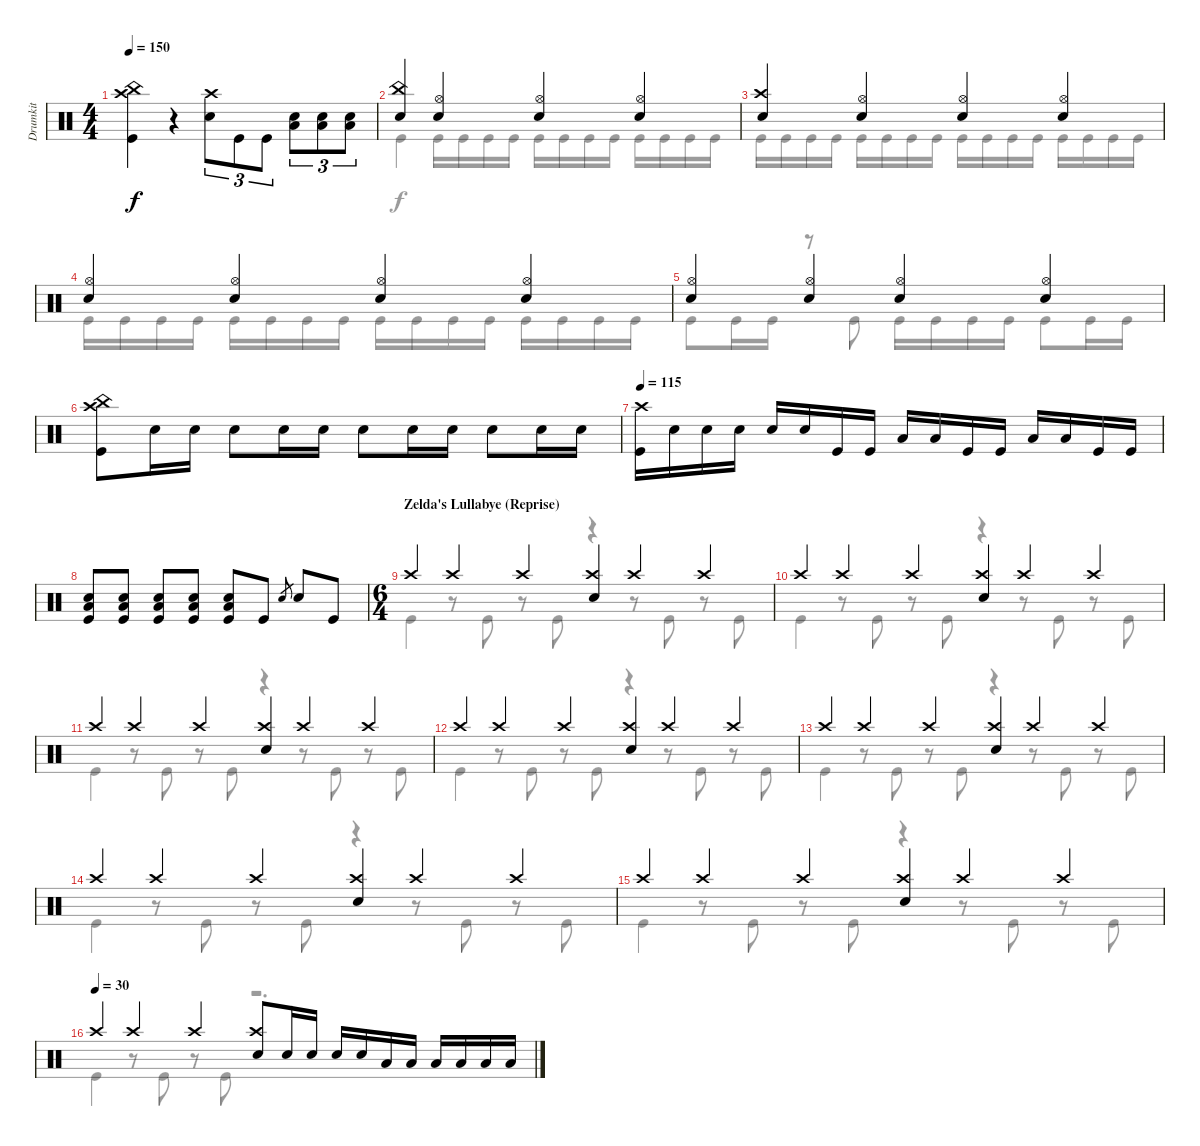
\track ("Drumkit" "Drumkit") {instrument percussion}
\staff {score}
\articulation defaults
\voice
\ts (4 4)
\tempo 150
\clef neutral
\ks c
("Kick (hit)" "Crash high (hit)" "China (hit)").4{dy f} r.4 ("Snare (hit) 2" "Crash high (hit)").8{tu (3 2)} "Kick (hit)".8{tu (3 2)} "Kick (hit)".8{tu (3 2)} ("Snare (hit) 2" "Low Floor Tom (hit)").8{tu (3 2)} ("Snare (hit) 2" "Low Floor Tom (hit)").8{tu (3 2)} ("Snare (hit) 2" "Low Floor Tom (hit)").8{tu (3 2)} |
("Snare (hit) 2" "China (hit)").4 ("Snare (hit) 2" "Hi-Hat (open)").4 ("Snare (hit) 2" "Hi-Hat (open)").4 ("Snare (hit) 2" "Hi-Hat (open)").4 |
("Snare (hit) 2" "Crash high (hit)").4 ("Snare (hit) 2" "Hi-Hat (open)").4 ("Snare (hit) 2" "Hi-Hat (open)").4 ("Snare (hit) 2" "Hi-Hat (open)").4 |
("Snare (hit) 2" "Hi-Hat (open)").4 ("Snare (hit) 2" "Hi-Hat (open)").4 ("Snare (hit) 2" "Hi-Hat (open)").4 ("Snare (hit) 2" "Hi-Hat (open)").4 |
("Snare (hit) 2" "Hi-Hat (open)").4 ("Snare (hit) 2" "Hi-Hat (open)").4 ("Snare (hit) 2" "Hi-Hat (open)").4 ("Snare (hit) 2" "Hi-Hat (open)").4 |
("Kick (hit)" "China (hit)" "Crash high (hit)").8 "Snare (hit) 2".16 "Snare (hit) 2".16 "Snare (hit) 2".8 "Snare (hit) 2".16 "Snare (hit) 2".16 "Snare (hit) 2".8 "Snare (hit) 2".16 "Snare (hit) 2".16 "Snare (hit) 2".8 "Snare (hit) 2".16 "Snare (hit) 2".16 |
\tempo 115
("Kick (hit)" "Crash high (hit)").16 "Snare (hit) 2".16 "Snare (hit) 2".16 "Snare (hit) 2".16 "Snare (hit) 2".16 "Snare (hit) 2".16 "Kick (hit)".16 "Kick (hit)".16 "Low Tom (hit)".16 "Low Tom (hit)".16 "Kick (hit)".16 "Kick (hit)".16 "Low Floor Tom (hit)".16 "Low Floor Tom (hit)".16 "Kick (hit)".16 "Kick (hit)".16 |
("Kick (hit)" "Snare (hit) 2" "Low Floor Tom (hit)").8 ("Kick (hit)" "Snare (hit) 2" "Low Floor Tom (hit)").8 ("Kick (hit)" "Snare (hit) 2" "Low Floor Tom (hit)").8 ("Kick (hit)" "Snare (hit) 2" "Low Floor Tom (hit)").8 ("Kick (hit)" "Snare (hit) 2" "Low Floor Tom (hit)").8 "Kick (hit)".8 "Snare (hit)".8{gr} "Snare (hit) 2".8 "Kick (hit)".8 |
\ts (6 4)
\section ("" "Zelda's Lullabye (Reprise)")
"Crash high (hit)".4 "Crash high (hit)".4 "Crash high (hit)".4 ("Crash high (hit)" "Snare (hit) 2").4 "Crash high (hit)".4 "Crash high (hit)".4 |
"Crash high (hit)".4 "Crash high (hit)".4 "Crash high (hit)".4 ("Crash high (hit)" "Snare (hit) 2").4 "Crash high (hit)".4 "Crash high (hit)".4 |
"Crash high (hit)".4 "Crash high (hit)".4 "Crash high (hit)".4 ("Crash high (hit)" "Snare (hit) 2").4 "Crash high (hit)".4 "Crash high (hit)".4 |
"Crash high (hit)".4 "Crash high (hit)".4 "Crash high (hit)".4 ("Crash high (hit)" "Snare (hit) 2").4 "Crash high (hit)".4 "Crash high (hit)".4 |
"Crash high (hit)".4 "Crash high (hit)".4 "Crash high (hit)".4 ("Crash high (hit)" "Snare (hit) 2").4 "Crash high (hit)".4 "Crash high (hit)".4 |
"Crash high (hit)".4 "Crash high (hit)".4 "Crash high (hit)".4 ("Crash high (hit)" "Snare (hit) 2").4 "Crash high (hit)".4 "Crash high (hit)".4 |
"Crash high (hit)".4 "Crash high (hit)".4 "Crash high (hit)".4 ("Crash high (hit)" "Snare (hit) 2").4 "Crash high (hit)".4 "Crash high (hit)".4 |
\tempo (30)
"Crash high (hit)".4 "Crash high (hit)".4 "Crash high (hit)".4 ("Crash high (hit)" "Snare (hit) 2").8 "Snare (hit) 2".16 "Snare (hit) 2".16 "Snare (hit) 2".16 "Snare (hit) 2".16 "Low Tom (hit)".16 "Low Tom (hit)".16 "Low Tom (hit)".16 "Low Tom (hit)".16 "Low Floor Tom (hit)".16 "Low Floor Tom (hit)".16
\voice
\clef neutral
\ottava regular
\simile none
\ks c
|
"Kick (hit)".4 "Kick (hit)".16 "Kick (hit)".16 "Kick (hit)".16 "Kick (hit)".16 "Kick (hit)".16 "Kick (hit)".16 "Kick (hit)".16 "Kick (hit)".16 "Kick (hit)".16 "Kick (hit)".16 "Kick (hit)".16 "Kick (hit)".16 |
"Kick (hit)".16 "Kick (hit)".16 "Kick (hit)".16 "Kick (hit)".16 "Kick (hit)".16 "Kick (hit)".16 "Kick (hit)".16 "Kick (hit)".16 "Kick (hit)".16 "Kick (hit)".16 "Kick (hit)".16 "Kick (hit)".16 "Kick (hit)".16 "Kick (hit)".16 "Kick (hit)".16 "Kick (hit)".16 |
"Kick (hit)".16 "Kick (hit)".16 "Kick (hit)".16 "Kick (hit)".16 "Kick (hit)".16 "Kick (hit)".16 "Kick (hit)".16 "Kick (hit)".16 "Kick (hit)".16 "Kick (hit)".16 "Kick (hit)".16 "Kick (hit)".16 "Kick (hit)".16 "Kick (hit)".16 "Kick (hit)".16 "Kick (hit)".16 |
"Kick (hit)".8 "Kick (hit)".16 "Kick (hit)".16 r.8 "Kick (hit)".8 "Kick (hit)".16 "Kick (hit)".16 "Kick (hit)".16 "Kick (hit)".16 "Kick (hit)".8 "Kick (hit)".16 "Kick (hit)".16 |
|
|
|
"Kick (hit)".4 r.8 "Kick (hit)".8 r.8 "Kick (hit)".8 r.4 r.8 "Kick (hit)".8 r.8 "Kick (hit)".8 |
"Kick (hit)".4 r.8 "Kick (hit)".8 r.8 "Kick (hit)".8 r.4 r.8 "Kick (hit)".8 r.8 "Kick (hit)".8 |
"Kick (hit)".4 r.8 "Kick (hit)".8 r.8 "Kick (hit)".8 r.4 r.8 "Kick (hit)".8 r.8 "Kick (hit)".8 |
"Kick (hit)".4 r.8 "Kick (hit)".8 r.8 "Kick (hit)".8 r.4 r.8 "Kick (hit)".8 r.8 "Kick (hit)".8 |
"Kick (hit)".4 r.8 "Kick (hit)".8 r.8 "Kick (hit)".8 r.4 r.8 "Kick (hit)".8 r.8 "Kick (hit)".8 |
"Kick (hit)".4 r.8 "Kick (hit)".8 r.8 "Kick (hit)".8 r.4 r.8 "Kick (hit)".8 r.8 "Kick (hit)".8 |
"Kick (hit)".4 r.8 "Kick (hit)".8 r.8 "Kick (hit)".8 r.4 r.8 "Kick (hit)".8 r.8 "Kick (hit)".8 |
"Kick (hit)".4 r.8 "Kick (hit)".8 r.8 "Kick (hit)".8 r.2{d}
